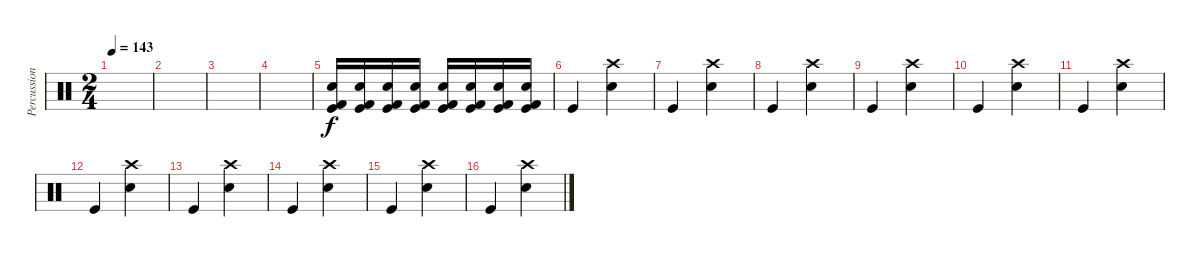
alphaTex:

\track ("Percussion" "Percussion") {instrument percussion}
\staff {score}
\articulation defaults
\ts (2 4)
\tempo 143
\clef neutral
\ks c
|
|
|
|
("Kick (hit) 2" "Kick (hit)" "Snare (hit) 2").16 ("Kick (hit) 2" "Kick (hit)" "Snare (hit) 2").16 ("Kick (hit) 2" "Kick (hit)" "Snare (hit) 2").16 ("Kick (hit) 2" "Kick (hit)" "Snare (hit) 2").16 ("Kick (hit) 2" "Kick (hit)" "Snare (hit) 2").16 ("Kick (hit) 2" "Kick (hit)" "Snare (hit) 2").16 ("Kick (hit) 2" "Kick (hit)" "Snare (hit) 2").16 ("Kick (hit) 2" "Kick (hit)" "Snare (hit) 2").16 |
"Kick (hit)".4 ("Snare (hit) 2" "Crash high (hit)").4 |
"Kick (hit)".4 ("Snare (hit) 2" "Crash high (hit)").4 |
"Kick (hit)".4 ("Snare (hit) 2" "Crash high (hit)").4 |
"Kick (hit)".4 ("Snare (hit) 2" "Crash high (hit)").4 |
"Kick (hit)".4 ("Snare (hit) 2" "Crash high (hit)").4 |
"Kick (hit)".4 ("Snare (hit) 2" "Crash high (hit)").4 |
"Kick (hit)".4 ("Snare (hit) 2" "Crash high (hit)").4 |
"Kick (hit)".4 ("Snare (hit) 2" "Crash high (hit)").4 |
"Kick (hit)".4 ("Snare (hit) 2" "Crash high (hit)").4 |
"Kick (hit)".4 ("Snare (hit) 2" "Crash high (hit)").4 |
"Kick (hit)".4 ("Snare (hit) 2" "Crash high (hit)").4
